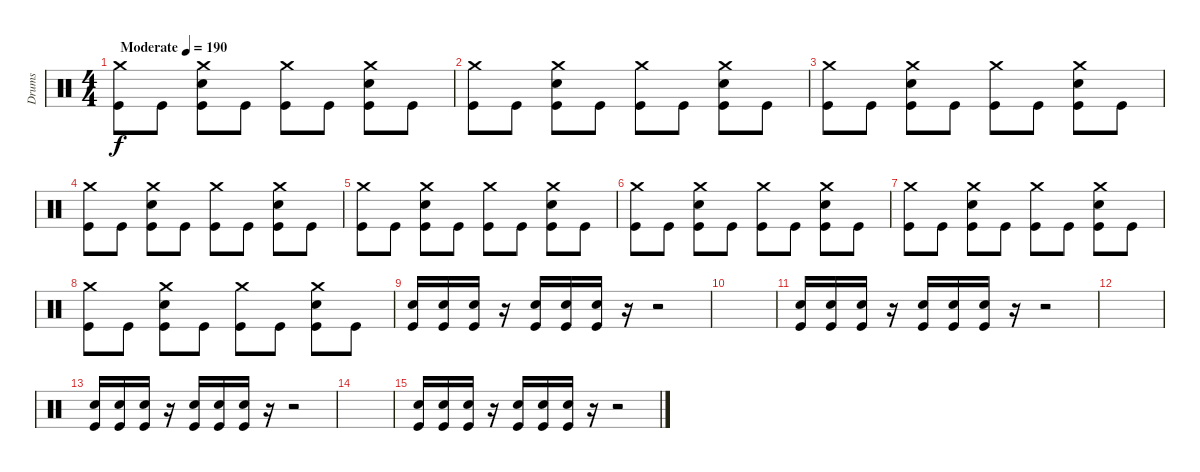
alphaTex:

\track ("Drums" "Drums") {instrument percussion}
\staff {score}
\articulation defaults
\ts (4 4)
\tempo (190 "Moderate")
\clef neutral
\ks c
("Crash medium (hit)" "Kick (hit)").8{dy f} "Kick (hit)".8 ("Crash medium (hit)" "Snare (hit) 2" "Kick (hit)").8 "Kick (hit)".8 ("Crash medium (hit)" "Kick (hit)").8 "Kick (hit)".8 ("Crash medium (hit)" "Snare (hit) 2" "Kick (hit)").8 "Kick (hit)".8 |
("Crash medium (hit)" "Kick (hit)").8 "Kick (hit)".8 ("Crash medium (hit)" "Snare (hit) 2" "Kick (hit)").8 "Kick (hit)".8 ("Crash medium (hit)" "Kick (hit)").8 "Kick (hit)".8 ("Crash medium (hit)" "Snare (hit) 2" "Kick (hit)").8 "Kick (hit)".8 |
("Crash medium (hit)" "Kick (hit)").8 "Kick (hit)".8 ("Crash medium (hit)" "Snare (hit) 2" "Kick (hit)").8 "Kick (hit)".8 ("Crash medium (hit)" "Kick (hit)").8 "Kick (hit)".8 ("Crash medium (hit)" "Snare (hit) 2" "Kick (hit)").8 "Kick (hit)".8 |
("Crash medium (hit)" "Kick (hit)").8 "Kick (hit)".8 ("Crash medium (hit)" "Snare (hit) 2" "Kick (hit)").8 "Kick (hit)".8 ("Crash medium (hit)" "Kick (hit)").8 "Kick (hit)".8 ("Crash medium (hit)" "Snare (hit) 2" "Kick (hit)").8 "Kick (hit)".8 |
("Crash medium (hit)" "Kick (hit)").8 "Kick (hit)".8 ("Crash medium (hit)" "Snare (hit) 2" "Kick (hit)").8 "Kick (hit)".8 ("Crash medium (hit)" "Kick (hit)").8 "Kick (hit)".8 ("Crash medium (hit)" "Snare (hit) 2" "Kick (hit)").8 "Kick (hit)".8 |
("Crash medium (hit)" "Kick (hit)").8 "Kick (hit)".8 ("Crash medium (hit)" "Snare (hit) 2" "Kick (hit)").8 "Kick (hit)".8 ("Crash medium (hit)" "Kick (hit)").8 "Kick (hit)".8 ("Crash medium (hit)" "Snare (hit) 2" "Kick (hit)").8 "Kick (hit)".8 |
("Crash medium (hit)" "Kick (hit)").8 "Kick (hit)".8 ("Crash medium (hit)" "Snare (hit) 2" "Kick (hit)").8 "Kick (hit)".8 ("Crash medium (hit)" "Kick (hit)").8 "Kick (hit)".8 ("Crash medium (hit)" "Snare (hit) 2" "Kick (hit)").8 "Kick (hit)".8 |
("Crash medium (hit)" "Kick (hit)").8 "Kick (hit)".8 ("Crash medium (hit)" "Snare (hit) 2" "Kick (hit)").8 "Kick (hit)".8 ("Crash medium (hit)" "Kick (hit)").8 "Kick (hit)".8 ("Crash medium (hit)" "Snare (hit) 2" "Kick (hit)").8 "Kick (hit)".8 |
("Snare (hit) 2" "Kick (hit)").16 ("Snare (hit) 2" "Kick (hit)").16 ("Snare (hit) 2" "Kick (hit)").16 r.16 ("Snare (hit) 2" "Kick (hit)").16 ("Snare (hit) 2" "Kick (hit)").16 ("Snare (hit) 2" "Kick (hit)").16 r.16 r.2 |
|
("Snare (hit) 2" "Kick (hit)").16 ("Snare (hit) 2" "Kick (hit)").16 ("Snare (hit) 2" "Kick (hit)").16 r.16 ("Snare (hit) 2" "Kick (hit)").16 ("Snare (hit) 2" "Kick (hit)").16 ("Snare (hit) 2" "Kick (hit)").16 r.16 r.2 |
|
("Snare (hit) 2" "Kick (hit)").16 ("Snare (hit) 2" "Kick (hit)").16 ("Snare (hit) 2" "Kick (hit)").16 r.16 ("Snare (hit) 2" "Kick (hit)").16 ("Snare (hit) 2" "Kick (hit)").16 ("Snare (hit) 2" "Kick (hit)").16 r.16 r.2 |
|
("Snare (hit) 2" "Kick (hit)").16 ("Snare (hit) 2" "Kick (hit)").16 ("Snare (hit) 2" "Kick (hit)").16 r.16 ("Snare (hit) 2" "Kick (hit)").16 ("Snare (hit) 2" "Kick (hit)").16 ("Snare (hit) 2" "Kick (hit)").16 r.16 r.2
